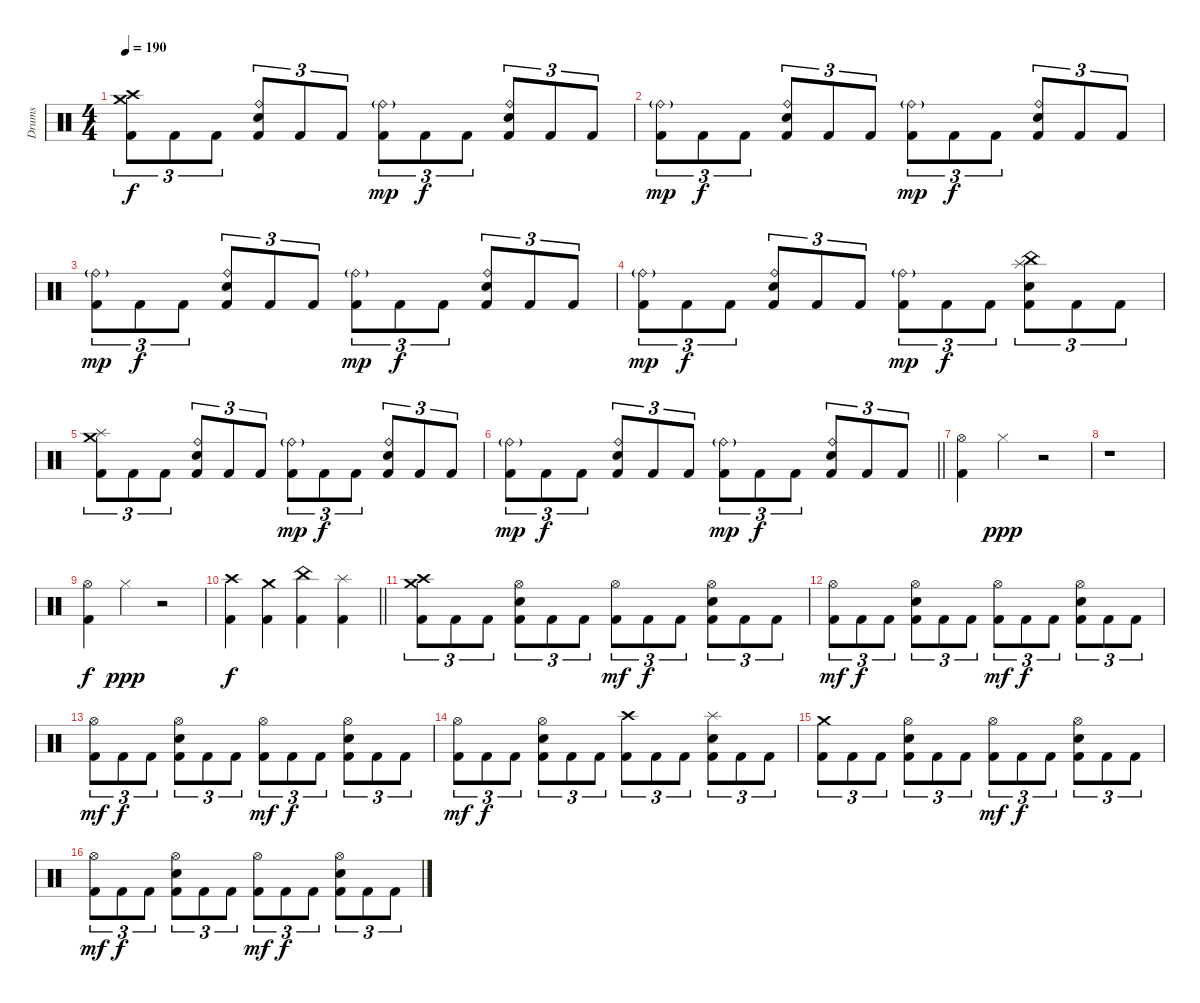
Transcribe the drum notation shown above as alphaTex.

\track ("Drums" "Drums") {instrument percussion}
\staff {score}
\articulation defaults
\ts (4 4)
\tempo 190
\clef neutral
\ks c
("Crash high (hit)" "Crash medium (hit)" "Kick (hit) 2").8{tu (3 2) dy f} "Kick (hit) 2".8{tu (3 2)} "Kick (hit) 2".8{tu (3 2)} ("Ride (bell)" "Electric Snare (hit)" "Kick (hit) 2").8{tu (3 2)} "Kick (hit) 2".8{tu (3 2)} "Kick (hit) 2".8{tu (3 2)} ("Ride (bell)"{g} "Kick (hit) 2").8{tu (3 2) dy mp} "Kick (hit) 2".8{tu (3 2) dy f} "Kick (hit) 2".8{tu (3 2)} ("Ride (bell)" "Electric Snare (hit)" "Kick (hit) 2").8{tu (3 2)} "Kick (hit) 2".8{tu (3 2)} "Kick (hit) 2".8{tu (3 2)} |
("Ride (bell)"{g} "Kick (hit) 2").8{tu (3 2) dy mp} "Kick (hit) 2".8{tu (3 2) dy f} "Kick (hit) 2".8{tu (3 2)} ("Ride (bell)" "Electric Snare (hit)" "Kick (hit) 2").8{tu (3 2)} "Kick (hit) 2".8{tu (3 2)} "Kick (hit) 2".8{tu (3 2)} ("Ride (bell)"{g} "Kick (hit) 2").8{tu (3 2) dy mp} "Kick (hit) 2".8{tu (3 2) dy f} "Kick (hit) 2".8{tu (3 2)} ("Ride (bell)" "Electric Snare (hit)" "Kick (hit) 2").8{tu (3 2)} "Kick (hit) 2".8{tu (3 2)} "Kick (hit) 2".8{tu (3 2)} |
("Ride (bell)"{g} "Kick (hit) 2").8{tu (3 2) dy mp} "Kick (hit) 2".8{tu (3 2) dy f} "Kick (hit) 2".8{tu (3 2)} ("Ride (bell)" "Electric Snare (hit)" "Kick (hit) 2").8{tu (3 2)} "Kick (hit) 2".8{tu (3 2)} "Kick (hit) 2".8{tu (3 2)} ("Ride (bell)"{g} "Kick (hit) 2").8{tu (3 2) dy mp} "Kick (hit) 2".8{tu (3 2) dy f} "Kick (hit) 2".8{tu (3 2)} ("Ride (bell)" "Electric Snare (hit)" "Kick (hit) 2").8{tu (3 2)} "Kick (hit) 2".8{tu (3 2)} "Kick (hit) 2".8{tu (3 2)} |
("Ride (bell)"{g} "Kick (hit) 2").8{tu (3 2) dy mp} "Kick (hit) 2".8{tu (3 2) dy f} "Kick (hit) 2".8{tu (3 2)} ("Ride (bell)" "Electric Snare (hit)" "Kick (hit) 2").8{tu (3 2)} "Kick (hit) 2".8{tu (3 2)} "Kick (hit) 2".8{tu (3 2)} ("Ride (bell)"{g} "Kick (hit) 2").8{tu (3 2) dy mp} "Kick (hit) 2".8{tu (3 2) dy f} "Kick (hit) 2".8{tu (3 2)} ("Splash (hit)" "China (hit)" "Electric Snare (hit)" "Kick (hit) 2").8{tu (3 2)} "Kick (hit) 2".8{tu (3 2)} "Kick (hit) 2".8{tu (3 2)} |
("Crash medium (hit)" "Splash (hit)" "Kick (hit) 2").8{tu (3 2)} "Kick (hit) 2".8{tu (3 2)} "Kick (hit) 2".8{tu (3 2)} ("Ride (bell)" "Electric Snare (hit)" "Kick (hit) 2").8{tu (3 2)} "Kick (hit) 2".8{tu (3 2)} "Kick (hit) 2".8{tu (3 2)} ("Ride (bell)"{g} "Kick (hit) 2").8{tu (3 2) dy mp} "Kick (hit) 2".8{tu (3 2) dy f} "Kick (hit) 2".8{tu (3 2)} ("Ride (bell)" "Electric Snare (hit)" "Kick (hit) 2").8{tu (3 2)} "Kick (hit) 2".8{tu (3 2)} "Kick (hit) 2".8{tu (3 2)} |
\barLineRight lightlight
("Ride (bell)"{g} "Kick (hit) 2").8{tu (3 2) dy mp} "Kick (hit) 2".8{tu (3 2) dy f} "Kick (hit) 2".8{tu (3 2)} ("Ride (bell)" "Electric Snare (hit)" "Kick (hit) 2").8{tu (3 2)} "Kick (hit) 2".8{tu (3 2)} "Kick (hit) 2".8{tu (3 2)} ("Ride (bell)"{g} "Kick (hit) 2").8{tu (3 2) dy mp} "Kick (hit) 2".8{tu (3 2) dy f} "Kick (hit) 2".8{tu (3 2)} ("Ride (bell)" "Electric Snare (hit)" "Kick (hit) 2").8{tu (3 2)} "Kick (hit) 2".8{tu (3 2)} "Kick (hit) 2".8{tu (3 2)} |
("Hi-Hat (open)" "Kick (hit) 2").4 "Hi-Hat (closed)".4{dy ppp} r.2 |
r.1 |
("Hi-Hat (open)" "Kick (hit) 2").4{dy f} "Hi-Hat (closed)".4{dy ppp} r.2 |
\barLineRight lightlight
("Crash high (hit)" "Kick (hit) 2").4{dy f} ("Crash medium (hit)" "Kick (hit) 2").4 ("China (hit)" "Kick (hit) 2").4 ("Splash (hit)" "Kick (hit) 2").4 |
("Crash high (hit)" "Crash medium (hit)" "Kick (hit) 2").8{tu (3 2)} "Kick (hit) 2".8{tu (3 2)} "Kick (hit) 2".8{tu (3 2)} ("Hi-Hat (open)" "Electric Snare (hit)" "Kick (hit) 2").8{tu (3 2)} "Kick (hit) 2".8{tu (3 2)} "Kick (hit) 2".8{tu (3 2)} ("Hi-Hat (open)" "Kick (hit) 2").8{tu (3 2) dy mf} "Kick (hit) 2".8{tu (3 2) dy f} "Kick (hit) 2".8{tu (3 2)} ("Hi-Hat (open)" "Electric Snare (hit)" "Kick (hit) 2").8{tu (3 2)} "Kick (hit) 2".8{tu (3 2)} "Kick (hit) 2".8{tu (3 2)} |
("Hi-Hat (open)" "Kick (hit) 2").8{tu (3 2) dy mf} "Kick (hit) 2".8{tu (3 2) dy f} "Kick (hit) 2".8{tu (3 2)} ("Hi-Hat (open)" "Electric Snare (hit)" "Kick (hit) 2").8{tu (3 2)} "Kick (hit) 2".8{tu (3 2)} "Kick (hit) 2".8{tu (3 2)} ("Hi-Hat (open)" "Kick (hit) 2").8{tu (3 2) dy mf} "Kick (hit) 2".8{tu (3 2) dy f} "Kick (hit) 2".8{tu (3 2)} ("Hi-Hat (open)" "Electric Snare (hit)" "Kick (hit) 2").8{tu (3 2)} "Kick (hit) 2".8{tu (3 2)} "Kick (hit) 2".8{tu (3 2)} |
("Hi-Hat (open)" "Kick (hit) 2").8{tu (3 2) dy mf} "Kick (hit) 2".8{tu (3 2) dy f} "Kick (hit) 2".8{tu (3 2)} ("Hi-Hat (open)" "Electric Snare (hit)" "Kick (hit) 2").8{tu (3 2)} "Kick (hit) 2".8{tu (3 2)} "Kick (hit) 2".8{tu (3 2)} ("Hi-Hat (open)" "Kick (hit) 2").8{tu (3 2) dy mf} "Kick (hit) 2".8{tu (3 2) dy f} "Kick (hit) 2".8{tu (3 2)} ("Hi-Hat (open)" "Electric Snare (hit)" "Kick (hit) 2").8{tu (3 2)} "Kick (hit) 2".8{tu (3 2)} "Kick (hit) 2".8{tu (3 2)} |
("Hi-Hat (open)" "Kick (hit) 2").8{tu (3 2) dy mf} "Kick (hit) 2".8{tu (3 2) dy f} "Kick (hit) 2".8{tu (3 2)} ("Hi-Hat (open)" "Electric Snare (hit)" "Kick (hit) 2").8{tu (3 2)} "Kick (hit) 2".8{tu (3 2)} "Kick (hit) 2".8{tu (3 2)} ("Crash high (hit)" "Kick (hit) 2").8{tu (3 2)} "Kick (hit) 2".8{tu (3 2)} "Kick (hit) 2".8{tu (3 2)} ("Splash (hit)" "Electric Snare (hit)" "Kick (hit) 2").8{tu (3 2)} "Kick (hit) 2".8{tu (3 2)} "Kick (hit) 2".8{tu (3 2)} |
("Crash medium (hit)" "Kick (hit) 2").8{tu (3 2)} "Kick (hit) 2".8{tu (3 2)} "Kick (hit) 2".8{tu (3 2)} ("Hi-Hat (open)" "Electric Snare (hit)" "Kick (hit) 2").8{tu (3 2)} "Kick (hit) 2".8{tu (3 2)} "Kick (hit) 2".8{tu (3 2)} ("Hi-Hat (open)" "Kick (hit) 2").8{tu (3 2) dy mf} "Kick (hit) 2".8{tu (3 2) dy f} "Kick (hit) 2".8{tu (3 2)} ("Hi-Hat (open)" "Electric Snare (hit)" "Kick (hit) 2").8{tu (3 2)} "Kick (hit) 2".8{tu (3 2)} "Kick (hit) 2".8{tu (3 2)} |
("Hi-Hat (open)" "Kick (hit) 2").8{tu (3 2) dy mf} "Kick (hit) 2".8{tu (3 2) dy f} "Kick (hit) 2".8{tu (3 2)} ("Hi-Hat (open)" "Electric Snare (hit)" "Kick (hit) 2").8{tu (3 2)} "Kick (hit) 2".8{tu (3 2)} "Kick (hit) 2".8{tu (3 2)} ("Hi-Hat (open)" "Kick (hit) 2").8{tu (3 2) dy mf} "Kick (hit) 2".8{tu (3 2) dy f} "Kick (hit) 2".8{tu (3 2)} ("Hi-Hat (open)" "Electric Snare (hit)" "Kick (hit) 2").8{tu (3 2)} "Kick (hit) 2".8{tu (3 2)} "Kick (hit) 2".8{tu (3 2)}
